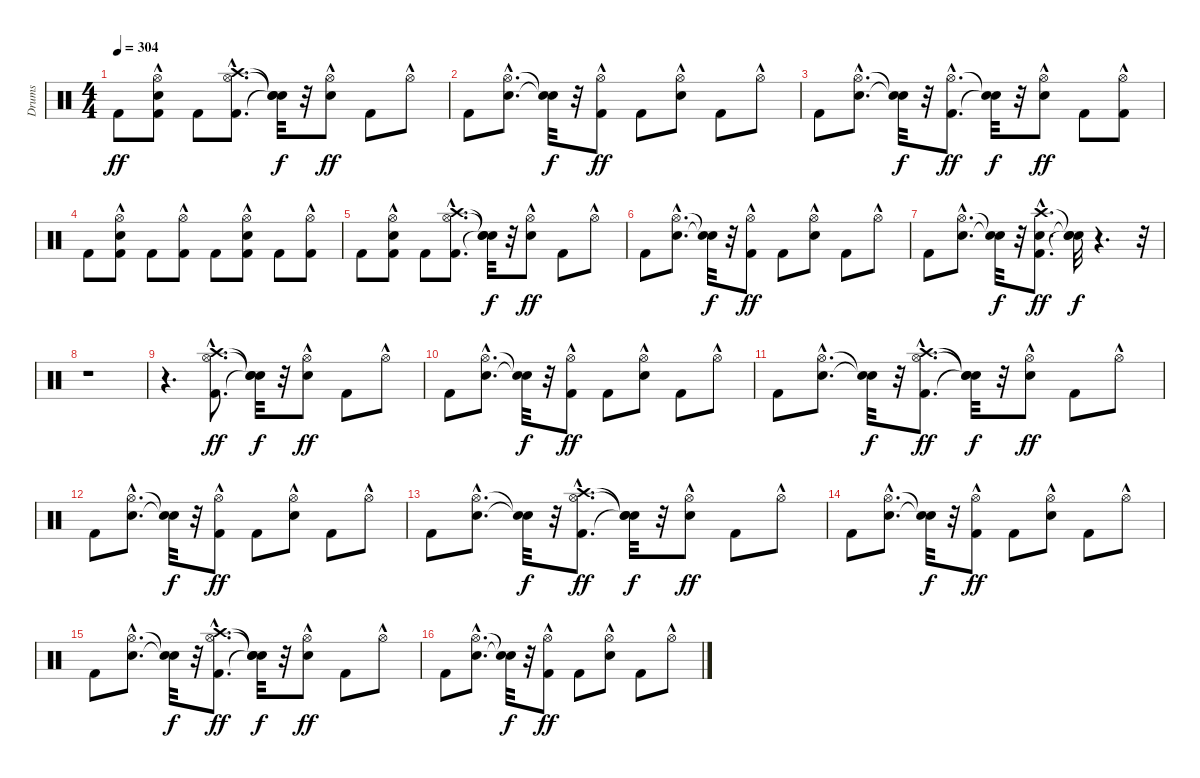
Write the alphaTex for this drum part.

\track ("Drums" "Drums") {instrument percussion}
\staff {score}
\articulation defaults
\ts (4 4)
\tempo 304
\clef neutral
\ks c "Kick (hit) 2".8{dy ff}
("Kick (hit) 2" "Snare (hit) 2"{hac} "Hi-Hat (open)"{hac}).8 "Kick (hit) 2".8 ("Kick (hit) 2"{hac} "Hi-Hat (open)"{hac} "Crash high (hit)"{hac}).8{d} ("Snare (hit)"{t} "Snare (hit)"{t} "Snare (hit)"{t}).32{dy f} r.32 ("Snare (hit) 2" "Hi-Hat (open)"{hac}).8{dy ff} "Kick (hit) 2".8 "Hi-Hat (open)"{hac}.8 |
"Kick (hit) 2".8 ("Snare (hit) 2"{hac} "Hi-Hat (open)"{hac}).8{d} ("Snare (hit)"{t} "Snare (hit)"{t}).32{dy f} r.32 ("Kick (hit) 2" "Hi-Hat (open)"{hac}).8{dy ff} "Kick (hit) 2".8 ("Snare (hit) 2" "Hi-Hat (open)"{hac}).8 "Kick (hit) 2".8 "Hi-Hat (open)"{hac}.8 |
"Kick (hit) 2".8 ("Snare (hit) 2"{hac} "Hi-Hat (open)"{hac}).8{d} ("Snare (hit)"{t} "Snare (hit)"{t}).32{dy f} r.32 ("Kick (hit) 2"{hac} "Hi-Hat (open)"{hac}).8{d dy ff} ("Snare (hit)"{t} "Snare (hit)"{t}).32{dy f} r.32 ("Snare (hit) 2" "Hi-Hat (open)"{hac}).8{dy ff} "Kick (hit) 2".8 ("Kick (hit) 2" "Hi-Hat (open)"{hac}).8 |
"Kick (hit) 2".8 ("Kick (hit) 2" "Snare (hit) 2"{hac} "Hi-Hat (open)"{hac}).8 "Kick (hit) 2".8 ("Kick (hit) 2" "Hi-Hat (open)"{hac}).8 "Kick (hit) 2".8 ("Kick (hit) 2" "Snare (hit) 2"{hac} "Hi-Hat (open)"{hac}).8 "Kick (hit) 2".8 ("Kick (hit) 2" "Hi-Hat (open)"{hac}).8 |
"Kick (hit) 2".8 ("Kick (hit) 2" "Snare (hit) 2"{hac} "Hi-Hat (open)"{hac}).8 "Kick (hit) 2".8 ("Kick (hit) 2"{hac} "Hi-Hat (open)"{hac} "Crash high (hit)"{hac}).8{d} ("Snare (hit)"{t} "Snare (hit)"{t} "Snare (hit)"{t}).32{dy f} r.32 ("Snare (hit) 2" "Hi-Hat (open)"{hac}).8{dy ff} "Kick (hit) 2".8 "Hi-Hat (open)"{hac}.8 |
"Kick (hit) 2".8 ("Snare (hit) 2"{hac} "Hi-Hat (open)"{hac}).8{d} ("Snare (hit)"{t} "Snare (hit)"{t}).32{dy f} r.32 ("Kick (hit) 2" "Hi-Hat (open)"{hac}).8{dy ff} "Kick (hit) 2".8 ("Snare (hit) 2" "Hi-Hat (open)"{hac}).8 "Kick (hit) 2".8 "Hi-Hat (open)"{hac}.8 |
"Kick (hit) 2".8 ("Snare (hit) 2"{hac} "Hi-Hat (open)"{hac}).8{d} ("Snare (hit)"{t} "Snare (hit)"{t}).32{dy f} r.32 ("Kick (hit) 2"{hac} "Snare (hit) 2"{hac} "Crash high (hit)"{hac}).8{d dy ff} ("Snare (hit)"{t} "Snare (hit)"{t} "Snare (hit)"{t}).32{dy f} r.4{d} r.32 |
r.1 |
r.4{d} ("Kick (hit) 2"{hac} "Hi-Hat (open)"{hac} "Crash high (hit)"{hac}).8{d dy ff} ("Snare (hit)"{t} "Snare (hit)"{t} "Snare (hit)"{t}).32{dy f} r.32 ("Snare (hit) 2" "Hi-Hat (open)"{hac}).8{dy ff} "Kick (hit) 2".8 "Hi-Hat (open)"{hac}.8 |
"Kick (hit) 2".8 ("Snare (hit) 2"{hac} "Hi-Hat (open)"{hac}).8{d} ("Snare (hit)"{t} "Snare (hit)"{t}).32{dy f} r.32 ("Kick (hit) 2" "Hi-Hat (open)"{hac}).8{dy ff} "Kick (hit) 2".8 ("Snare (hit) 2" "Hi-Hat (open)"{hac}).8 "Kick (hit) 2".8 "Hi-Hat (open)"{hac}.8 |
"Kick (hit) 2".8 ("Snare (hit) 2"{hac} "Hi-Hat (open)"{hac}).8{d} ("Snare (hit)"{t} "Snare (hit)"{t}).32{dy f} r.32 ("Kick (hit) 2"{hac} "Hi-Hat (open)"{hac} "Crash high (hit)"{hac}).8{d dy ff} ("Snare (hit)"{t} "Snare (hit)"{t} "Snare (hit)"{t}).32{dy f} r.32 ("Snare (hit) 2" "Hi-Hat (open)"{hac}).8{dy ff} "Kick (hit) 2".8 "Hi-Hat (open)"{hac}.8 |
"Kick (hit) 2".8 ("Snare (hit) 2"{hac} "Hi-Hat (open)"{hac}).8{d} ("Snare (hit)"{t} "Snare (hit)"{t}).32{dy f} r.32 ("Kick (hit) 2" "Hi-Hat (open)"{hac}).8{dy ff} "Kick (hit) 2".8 ("Snare (hit) 2" "Hi-Hat (open)"{hac}).8 "Kick (hit) 2".8 "Hi-Hat (open)"{hac}.8 |
"Kick (hit) 2".8 ("Snare (hit) 2"{hac} "Hi-Hat (open)"{hac}).8{d} ("Snare (hit)"{t} "Snare (hit)"{t}).32{dy f} r.32 ("Kick (hit) 2"{hac} "Hi-Hat (open)"{hac} "Crash high (hit)"{hac}).8{d dy ff} ("Snare (hit)"{t} "Snare (hit)"{t} "Snare (hit)"{t}).32{dy f} r.32 ("Snare (hit) 2" "Hi-Hat (open)"{hac}).8{dy ff} "Kick (hit) 2".8 "Hi-Hat (open)"{hac}.8 |
"Kick (hit) 2".8 ("Snare (hit) 2"{hac} "Hi-Hat (open)"{hac}).8{d} ("Snare (hit)"{t} "Snare (hit)"{t}).32{dy f} r.32 ("Kick (hit) 2" "Hi-Hat (open)"{hac}).8{dy ff} "Kick (hit) 2".8 ("Snare (hit) 2" "Hi-Hat (open)"{hac}).8 "Kick (hit) 2".8 "Hi-Hat (open)"{hac}.8 |
"Kick (hit) 2".8 ("Snare (hit) 2"{hac} "Hi-Hat (open)"{hac}).8{d} ("Snare (hit)"{t} "Snare (hit)"{t}).32{dy f} r.32 ("Kick (hit) 2"{hac} "Hi-Hat (open)"{hac} "Crash high (hit)"{hac}).8{d dy ff} ("Snare (hit)"{t} "Snare (hit)"{t} "Snare (hit)"{t}).32{dy f} r.32 ("Snare (hit) 2" "Hi-Hat (open)"{hac}).8{dy ff} "Kick (hit) 2".8 "Hi-Hat (open)"{hac}.8 |
"Kick (hit) 2".8 ("Snare (hit) 2"{hac} "Hi-Hat (open)"{hac}).8{d} ("Snare (hit)"{t} "Snare (hit)"{t}).32{dy f} r.32 ("Kick (hit) 2" "Hi-Hat (open)"{hac}).8{dy ff} "Kick (hit) 2".8 ("Snare (hit) 2" "Hi-Hat (open)"{hac}).8 "Kick (hit) 2".8 "Hi-Hat (open)"{hac}.8
